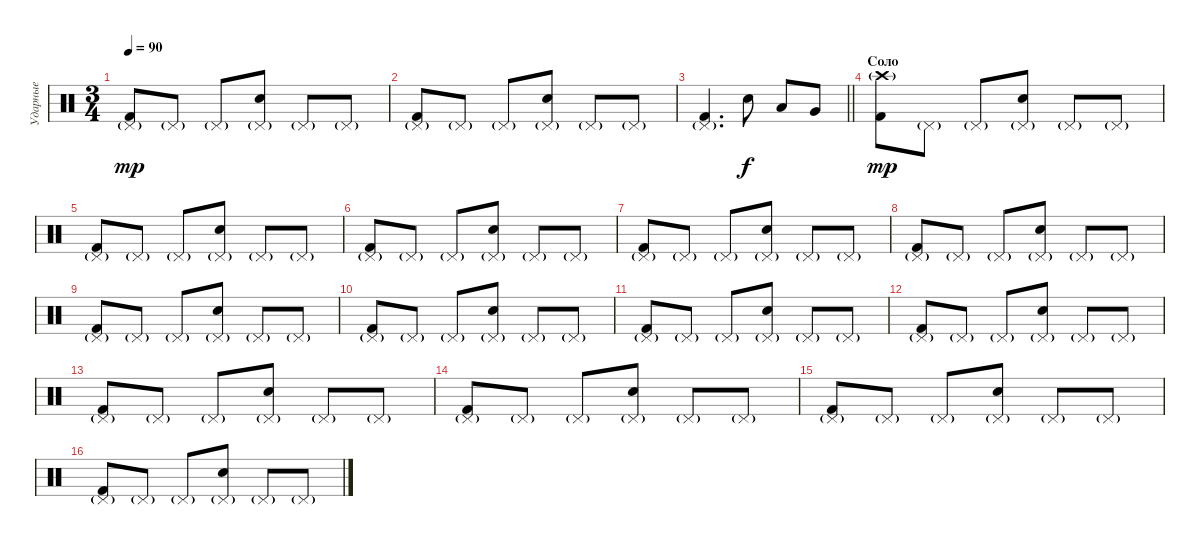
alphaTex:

\track ("Ударные" "Ударные") {instrument percussion}
\staff {score}
\articulation defaults
\ts (3 4)
\tempo 90
\clef neutral
\ks c
("Kick (hit) 2" "Pedal Hi-Hat (hit)"{g}).8{dy mp} "Pedal Hi-Hat (hit)"{g}.8 "Pedal Hi-Hat (hit)"{g}.8 ("Electric Snare (hit)" "Pedal Hi-Hat (hit)"{g}).8 "Pedal Hi-Hat (hit)"{g}.8 "Pedal Hi-Hat (hit)"{g}.8 |
("Kick (hit) 2" "Pedal Hi-Hat (hit)"{g}).8 "Pedal Hi-Hat (hit)"{g}.8 "Pedal Hi-Hat (hit)"{g}.8 ("Electric Snare (hit)" "Pedal Hi-Hat (hit)"{g}).8 "Pedal Hi-Hat (hit)"{g}.8 "Pedal Hi-Hat (hit)"{g}.8 |
\barLineRight lightlight
("Kick (hit) 2" "Pedal Hi-Hat (hit)"{g}).4{d} "Electric Snare (hit)".8{dy f} "Low Tom (hit)".8 "Very Low Tom (hit)".8 |
\section ("" "Соло")
("Kick (hit) 2" "Crash high (hit)"{g}).8{dy mp} "Pedal Hi-Hat (hit)"{g}.8 "Pedal Hi-Hat (hit)"{g}.8 ("Electric Snare (hit)" "Pedal Hi-Hat (hit)"{g}).8 "Pedal Hi-Hat (hit)"{g}.8 "Pedal Hi-Hat (hit)"{g}.8 |
("Kick (hit) 2" "Pedal Hi-Hat (hit)"{g}).8 "Pedal Hi-Hat (hit)"{g}.8 "Pedal Hi-Hat (hit)"{g}.8 ("Electric Snare (hit)" "Pedal Hi-Hat (hit)"{g}).8 "Pedal Hi-Hat (hit)"{g}.8 "Pedal Hi-Hat (hit)"{g}.8 |
("Kick (hit) 2" "Pedal Hi-Hat (hit)"{g}).8 "Pedal Hi-Hat (hit)"{g}.8 "Pedal Hi-Hat (hit)"{g}.8 ("Electric Snare (hit)" "Pedal Hi-Hat (hit)"{g}).8 "Pedal Hi-Hat (hit)"{g}.8 "Pedal Hi-Hat (hit)"{g}.8 |
("Kick (hit) 2" "Pedal Hi-Hat (hit)"{g}).8 "Pedal Hi-Hat (hit)"{g}.8 "Pedal Hi-Hat (hit)"{g}.8 ("Electric Snare (hit)" "Pedal Hi-Hat (hit)"{g}).8 "Pedal Hi-Hat (hit)"{g}.8 "Pedal Hi-Hat (hit)"{g}.8 |
("Kick (hit) 2" "Pedal Hi-Hat (hit)"{g}).8 "Pedal Hi-Hat (hit)"{g}.8 "Pedal Hi-Hat (hit)"{g}.8 ("Electric Snare (hit)" "Pedal Hi-Hat (hit)"{g}).8 "Pedal Hi-Hat (hit)"{g}.8 "Pedal Hi-Hat (hit)"{g}.8 |
("Kick (hit) 2" "Pedal Hi-Hat (hit)"{g}).8 "Pedal Hi-Hat (hit)"{g}.8 "Pedal Hi-Hat (hit)"{g}.8 ("Electric Snare (hit)" "Pedal Hi-Hat (hit)"{g}).8 "Pedal Hi-Hat (hit)"{g}.8 "Pedal Hi-Hat (hit)"{g}.8 |
("Kick (hit) 2" "Pedal Hi-Hat (hit)"{g}).8 "Pedal Hi-Hat (hit)"{g}.8 "Pedal Hi-Hat (hit)"{g}.8 ("Electric Snare (hit)" "Pedal Hi-Hat (hit)"{g}).8 "Pedal Hi-Hat (hit)"{g}.8 "Pedal Hi-Hat (hit)"{g}.8 |
("Kick (hit) 2" "Pedal Hi-Hat (hit)"{g}).8 "Pedal Hi-Hat (hit)"{g}.8 "Pedal Hi-Hat (hit)"{g}.8 ("Electric Snare (hit)" "Pedal Hi-Hat (hit)"{g}).8 "Pedal Hi-Hat (hit)"{g}.8 "Pedal Hi-Hat (hit)"{g}.8 |
("Kick (hit) 2" "Pedal Hi-Hat (hit)"{g}).8 "Pedal Hi-Hat (hit)"{g}.8 "Pedal Hi-Hat (hit)"{g}.8 ("Electric Snare (hit)" "Pedal Hi-Hat (hit)"{g}).8 "Pedal Hi-Hat (hit)"{g}.8 "Pedal Hi-Hat (hit)"{g}.8 |
("Kick (hit) 2" "Pedal Hi-Hat (hit)"{g}).8 "Pedal Hi-Hat (hit)"{g}.8 "Pedal Hi-Hat (hit)"{g}.8 ("Electric Snare (hit)" "Pedal Hi-Hat (hit)"{g}).8 "Pedal Hi-Hat (hit)"{g}.8 "Pedal Hi-Hat (hit)"{g}.8 |
("Kick (hit) 2" "Pedal Hi-Hat (hit)"{g}).8 "Pedal Hi-Hat (hit)"{g}.8 "Pedal Hi-Hat (hit)"{g}.8 ("Electric Snare (hit)" "Pedal Hi-Hat (hit)"{g}).8 "Pedal Hi-Hat (hit)"{g}.8 "Pedal Hi-Hat (hit)"{g}.8 |
("Kick (hit) 2" "Pedal Hi-Hat (hit)"{g}).8 "Pedal Hi-Hat (hit)"{g}.8 "Pedal Hi-Hat (hit)"{g}.8 ("Electric Snare (hit)" "Pedal Hi-Hat (hit)"{g}).8 "Pedal Hi-Hat (hit)"{g}.8 "Pedal Hi-Hat (hit)"{g}.8 |
("Kick (hit) 2" "Pedal Hi-Hat (hit)"{g}).8 "Pedal Hi-Hat (hit)"{g}.8 "Pedal Hi-Hat (hit)"{g}.8 ("Electric Snare (hit)" "Pedal Hi-Hat (hit)"{g}).8 "Pedal Hi-Hat (hit)"{g}.8 "Pedal Hi-Hat (hit)"{g}.8
